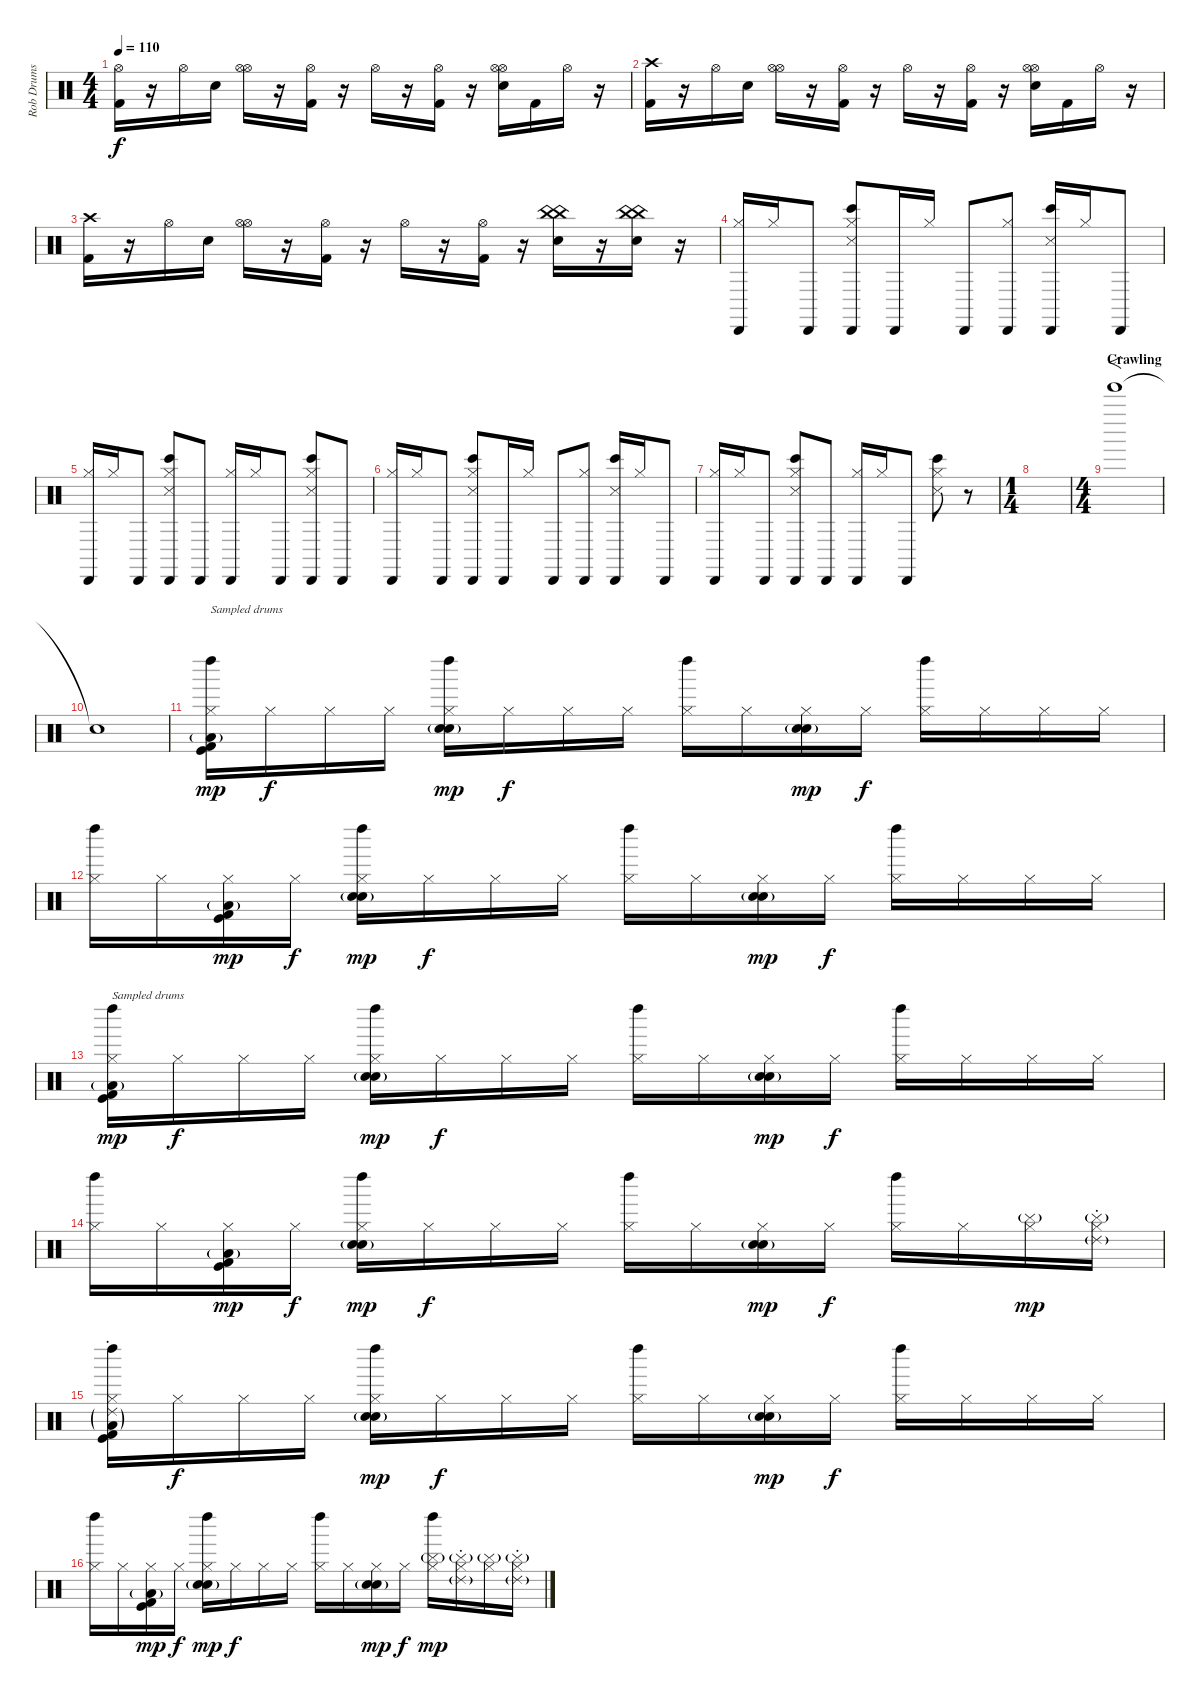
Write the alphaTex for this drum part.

\track ("Rob Drums" "Rob Drums") {instrument percussion}
\staff {score}
\articulation defaults
\ts (4 4)
\tempo 110
\clef neutral
\ks c
("Hi-Hat (open)" "Kick (hit) 2").16{dy f} r.16 "Hi-Hat (open)".16 "Electric Snare (hit)".16 ("Hi-Hat (open)" "Hi-Hat (open)").16 r.16 ("Hi-Hat (open)" "Kick (hit) 2").16 r.16 "Hi-Hat (open)".16 r.16 ("Hi-Hat (open)" "Kick (hit) 2").16 r.16 ("Hi-Hat (open)" "Hi-Hat (open)" "Electric Snare (hit)").16 "Kick (hit) 2".16 "Hi-Hat (open)".16 r.16 |
("Crash high (hit)" "Kick (hit) 2").16 r.16 "Hi-Hat (open)".16 "Electric Snare (hit)".16 ("Hi-Hat (open)" "Hi-Hat (open)").16 r.16 ("Hi-Hat (open)" "Kick (hit) 2").16 r.16 "Hi-Hat (open)".16 r.16 ("Hi-Hat (open)" "Kick (hit) 2").16 r.16 ("Hi-Hat (open)" "Hi-Hat (open)" "Electric Snare (hit)").16 "Kick (hit) 2".16 "Hi-Hat (open)".16 r.16 |
("Crash high (hit)" "Kick (hit) 2").16 r.16 "Hi-Hat (open)".16 "Electric Snare (hit)".16 ("Hi-Hat (open)" "Hi-Hat (open)").16 r.16 ("Hi-Hat (open)" "Kick (hit) 2").16 r.16 "Hi-Hat (open)".16 r.16 ("Hi-Hat (open)" "Kick (hit) 2").16 r.16 ("China (hit)" "China (hit)" "Electric Snare (hit)").16 r.16 ("China (hit)" "China (hit)" "Electric Snare (hit)").16 r.16 |
("Cabasa (hit)" "Hi-Hat (closed)").16 "Hi-Hat (closed)".16 "Cabasa (hit)".8 ("Hi-Hat (closed)" "Cabasa (hit)" "Snare (side stick) 3" "Bongo High (hit)").8 "Cabasa (hit)".16 "Hi-Hat (closed)".16 "Cabasa (hit)".8 ("Hi-Hat (closed)" "Cabasa (hit)").8 ("Cabasa (hit)" "Snare (side stick) 3" "Bongo High (hit)").16 "Hi-Hat (closed)".16 "Cabasa (hit)".8 |
("Cabasa (hit)" "Hi-Hat (closed)").16 "Hi-Hat (closed)".16 "Cabasa (hit)".8 ("Hi-Hat (closed)" "Cabasa (hit)" "Snare (side stick) 3" "Bongo High (hit)").8 "Cabasa (hit)".8 ("Hi-Hat (closed)" "Cabasa (hit)").16 "Hi-Hat (closed)".16 "Cabasa (hit)".8 ("Hi-Hat (closed)" "Cabasa (hit)" "Snare (side stick) 3" "Bongo High (hit)").8 "Cabasa (hit)".8 |
("Cabasa (hit)" "Hi-Hat (closed)").16 "Hi-Hat (closed)".16 "Cabasa (hit)".8 ("Hi-Hat (closed)" "Cabasa (hit)" "Snare (side stick) 3" "Bongo High (hit)").8 "Cabasa (hit)".16 "Hi-Hat (closed)".16 "Cabasa (hit)".8 ("Hi-Hat (closed)" "Cabasa (hit)").8 ("Cabasa (hit)" "Snare (side stick) 3" "Bongo High (hit)").16 "Hi-Hat (closed)".16 "Cabasa (hit)".8 |
("Cabasa (hit)" "Hi-Hat (closed)").16 "Hi-Hat (closed)".16 "Cabasa (hit)".8 ("Hi-Hat (closed)" "Cabasa (hit)" "Snare (side stick) 3" "Bongo High (hit)").8 "Cabasa (hit)".8 ("Hi-Hat (closed)" "Cabasa (hit)").16 "Hi-Hat (closed)".16 "Cabasa (hit)".8 ("Hi-Hat (closed)" "Snare (side stick) 3" "Bongo High (hit)").8 r.8 |
\ts (1 4)
|
\ts (4 4)
\section ("" "Crawling")
"Tinkle Bell (hit)".1{f volume 5} |
"Snare (hit)"{t}.1 |
("Left Maraca (hit)" "Hi-Hat (closed)" "Kick (hit)" "Kick (hit) 2" "Low Floor Tom (hit)"{g}).16{txt "Sampled drums" dy mp volume 16} "Hi-Hat (closed)".16{dy f} "Hi-Hat (closed)".16 "Hi-Hat (closed)".16 ("Left Maraca (hit)" "Hi-Hat (closed)" "Electric Snare (hit)"{g} "Hand Clap (hit)").16{dy mp} "Hi-Hat (closed)".16{dy f} "Hi-Hat (closed)".16 "Hi-Hat (closed)".16 ("Left Maraca (hit)" "Hi-Hat (closed)").16 "Hi-Hat (closed)".16 ("Hi-Hat (closed)" "Electric Snare (hit)"{g} "Hand Clap (hit)").16{dy mp} "Hi-Hat (closed)".16{dy f} ("Left Maraca (hit)" "Hi-Hat (closed)").16 "Hi-Hat (closed)".16 "Hi-Hat (closed)".16 "Hi-Hat (closed)".16 |
("Left Maraca (hit)" "Hi-Hat (closed)").16{volume 16} "Hi-Hat (closed)".16 ("Hi-Hat (closed)" "Kick (hit)" "Kick (hit) 2" "Low Floor Tom (hit)"{g}).16{dy mp} "Hi-Hat (closed)".16{dy f} ("Left Maraca (hit)" "Hi-Hat (closed)" "Electric Snare (hit)"{g} "Hand Clap (hit)").16{dy mp} "Hi-Hat (closed)".16{dy f} "Hi-Hat (closed)".16 "Hi-Hat (closed)".16 ("Left Maraca (hit)" "Hi-Hat (closed)").16 "Hi-Hat (closed)".16 ("Hi-Hat (closed)" "Electric Snare (hit)"{g} "Hand Clap (hit)").16{dy mp} "Hi-Hat (closed)".16{dy f} ("Left Maraca (hit)" "Hi-Hat (closed)").16 "Hi-Hat (closed)".16 "Hi-Hat (closed)".16 "Hi-Hat (closed)".16 |
("Left Maraca (hit)" "Hi-Hat (closed)" "Kick (hit)" "Kick (hit) 2" "Low Floor Tom (hit)"{g}).16{txt "Sampled drums" dy mp volume 16} "Hi-Hat (closed)".16{dy f} "Hi-Hat (closed)".16 "Hi-Hat (closed)".16 ("Left Maraca (hit)" "Hi-Hat (closed)" "Electric Snare (hit)"{g} "Hand Clap (hit)").16{dy mp} "Hi-Hat (closed)".16{dy f} "Hi-Hat (closed)".16 "Hi-Hat (closed)".16 ("Left Maraca (hit)" "Hi-Hat (closed)").16 "Hi-Hat (closed)".16 ("Hi-Hat (closed)" "Electric Snare (hit)"{g} "Hand Clap (hit)").16{dy mp} "Hi-Hat (closed)".16{dy f} ("Left Maraca (hit)" "Hi-Hat (closed)").16 "Hi-Hat (closed)".16 "Hi-Hat (closed)".16 "Hi-Hat (closed)".16 |
("Left Maraca (hit)" "Hi-Hat (closed)").16{volume 16} "Hi-Hat (closed)".16 ("Hi-Hat (closed)" "Kick (hit)" "Kick (hit) 2" "Low Floor Tom (hit)"{g}).16{dy mp} "Hi-Hat (closed)".16{dy f} ("Left Maraca (hit)" "Hi-Hat (closed)" "Electric Snare (hit)"{g} "Hand Clap (hit)").16{dy mp} "Hi-Hat (closed)".16{dy f} "Hi-Hat (closed)".16 "Hi-Hat (closed)".16 ("Left Maraca (hit)" "Hi-Hat (closed)").16 "Hi-Hat (closed)".16 ("Hi-Hat (closed)" "Electric Snare (hit)"{g} "Hand Clap (hit)").16{dy mp} "Hi-Hat (closed)".16{dy f} ("Left Maraca (hit)" "Hi-Hat (closed)").16 "Hi-Hat (closed)".16 ("Cymbal (hit)"{g} "Hi-Hat (closed)").16{dy mp} ("Cymbal (hit)"{g} "Ride (choke) 2"{g} "Hi-Hat (closed)").16 |
("Left Maraca (hit)" "Ride (choke) 2"{g} "Hi-Hat (closed)" "Kick (hit)" "Kick (hit) 2" "Low Floor Tom (hit)"{g}).16{volume 16} "Hi-Hat (closed)".16{dy f} "Hi-Hat (closed)".16 "Hi-Hat (closed)".16 ("Left Maraca (hit)" "Hi-Hat (closed)" "Electric Snare (hit)"{g} "Hand Clap (hit)").16{dy mp} "Hi-Hat (closed)".16{dy f} "Hi-Hat (closed)".16 "Hi-Hat (closed)".16 ("Left Maraca (hit)" "Hi-Hat (closed)").16 "Hi-Hat (closed)".16 ("Hi-Hat (closed)" "Electric Snare (hit)"{g} "Hand Clap (hit)").16{dy mp} "Hi-Hat (closed)".16{dy f} ("Left Maraca (hit)" "Hi-Hat (closed)").16 "Hi-Hat (closed)".16 "Hi-Hat (closed)".16 "Hi-Hat (closed)".16 |
("Left Maraca (hit)" "Hi-Hat (closed)").16{volume 16} "Hi-Hat (closed)".16 ("Hi-Hat (closed)" "Kick (hit)" "Kick (hit) 2" "Low Floor Tom (hit)"{g}).16{dy mp} "Hi-Hat (closed)".16{dy f} ("Left Maraca (hit)" "Hi-Hat (closed)" "Electric Snare (hit)"{g} "Hand Clap (hit)").16{dy mp} "Hi-Hat (closed)".16{dy f} "Hi-Hat (closed)".16 "Hi-Hat (closed)".16 ("Left Maraca (hit)" "Hi-Hat (closed)").16 "Hi-Hat (closed)".16 ("Hi-Hat (closed)" "Electric Snare (hit)"{g} "Hand Clap (hit)").16{dy mp} "Hi-Hat (closed)".16{dy f} ("Left Maraca (hit)" "Cymbal (hit)"{g} "Hi-Hat (closed)").16{dy mp} ("Cymbal (hit)"{g} "Ride (choke) 2"{g} "Hi-Hat (closed)").16 ("Cymbal (hit)"{g} "Hi-Hat (closed)").16 ("Cymbal (hit)"{g} "Ride (choke) 2"{g} "Hi-Hat (closed)").16
